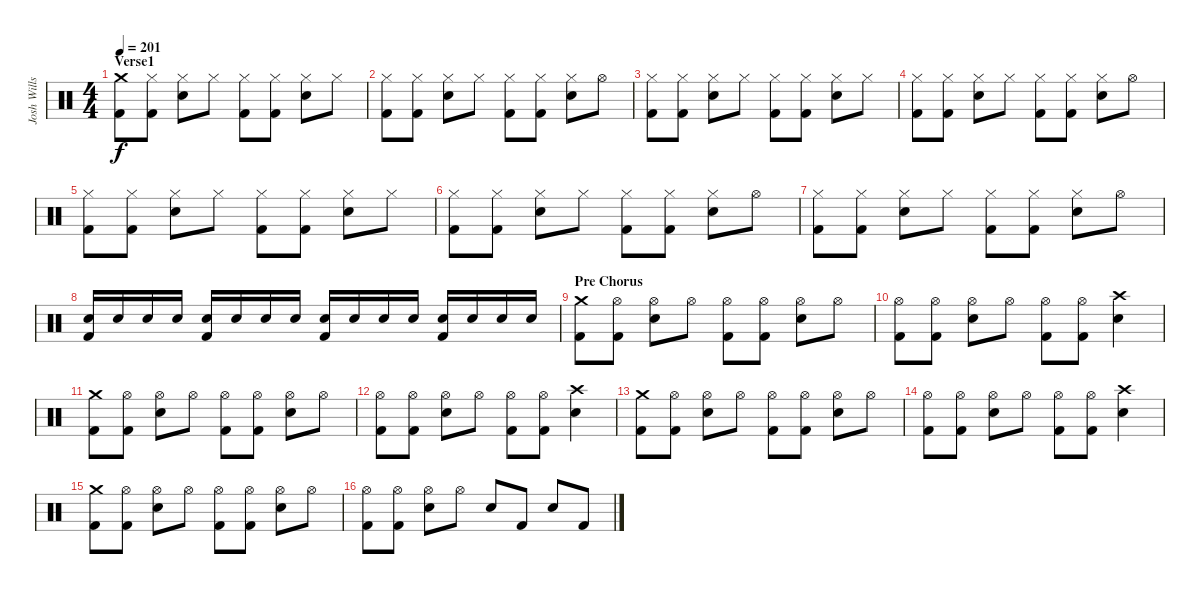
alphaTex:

\track ("Josh Wills" "Josh Wills") {instrument percussion}
\staff {score}
\articulation defaults
\ts (4 4)
\section ("" "Verse1")
\tempo 201
\clef neutral
\ks c
("Crash medium (hit)" "Kick (hit) 2").8{dy f} ("Hi-Hat (closed)" "Kick (hit) 2").8 ("Hi-Hat (closed)" "Snare (hit) 2").8 "Hi-Hat (closed)".8 ("Hi-Hat (closed)" "Kick (hit) 2").8 ("Hi-Hat (closed)" "Kick (hit) 2").8 ("Hi-Hat (closed)" "Snare (hit) 2").8 "Hi-Hat (closed)".8 |
("Hi-Hat (closed)" "Kick (hit) 2").8 ("Hi-Hat (closed)" "Kick (hit) 2").8 ("Hi-Hat (closed)" "Snare (hit) 2").8 "Hi-Hat (closed)".8 ("Hi-Hat (closed)" "Kick (hit) 2").8 ("Hi-Hat (closed)" "Kick (hit) 2").8 ("Hi-Hat (closed)" "Snare (hit) 2").8 "Hi-Hat (open)".8 |
("Hi-Hat (closed)" "Kick (hit) 2").8 ("Hi-Hat (closed)" "Kick (hit) 2").8 ("Hi-Hat (closed)" "Snare (hit) 2").8 "Hi-Hat (closed)".8 ("Hi-Hat (closed)" "Kick (hit) 2").8 ("Hi-Hat (closed)" "Kick (hit) 2").8 ("Hi-Hat (closed)" "Snare (hit) 2").8 "Hi-Hat (closed)".8 |
("Hi-Hat (closed)" "Kick (hit) 2").8 ("Hi-Hat (closed)" "Kick (hit) 2").8 ("Hi-Hat (closed)" "Snare (hit) 2").8 "Hi-Hat (closed)".8 ("Hi-Hat (closed)" "Kick (hit) 2").8 ("Hi-Hat (closed)" "Kick (hit) 2").8 ("Hi-Hat (closed)" "Snare (hit) 2").8 "Hi-Hat (open)".8 |
("Hi-Hat (closed)" "Kick (hit) 2").8 ("Hi-Hat (closed)" "Kick (hit) 2").8 ("Hi-Hat (closed)" "Snare (hit) 2").8 "Hi-Hat (closed)".8 ("Hi-Hat (closed)" "Kick (hit) 2").8 ("Hi-Hat (closed)" "Kick (hit) 2").8 ("Hi-Hat (closed)" "Snare (hit) 2").8 "Hi-Hat (closed)".8 |
("Hi-Hat (closed)" "Kick (hit) 2").8 ("Hi-Hat (closed)" "Kick (hit) 2").8 ("Hi-Hat (closed)" "Snare (hit) 2").8 "Hi-Hat (closed)".8 ("Hi-Hat (closed)" "Kick (hit) 2").8 ("Hi-Hat (closed)" "Kick (hit) 2").8 ("Hi-Hat (closed)" "Snare (hit) 2").8 "Hi-Hat (open)".8 |
("Hi-Hat (closed)" "Kick (hit) 2").8 ("Hi-Hat (closed)" "Kick (hit) 2").8 ("Hi-Hat (closed)" "Snare (hit) 2").8 "Hi-Hat (closed)".8 ("Hi-Hat (closed)" "Kick (hit) 2").8 ("Hi-Hat (closed)" "Kick (hit) 2").8 ("Hi-Hat (closed)" "Snare (hit) 2").8 "Hi-Hat (open)".8 |
("Snare (hit) 2" "Kick (hit) 2").16 "Snare (hit) 2".16 "Snare (hit) 2".16 "Snare (hit) 2".16 ("Snare (hit) 2" "Kick (hit) 2").16 "Snare (hit) 2".16 "Snare (hit) 2".16 "Snare (hit) 2".16 ("Snare (hit) 2" "Kick (hit) 2").16 "Snare (hit) 2".16 "Snare (hit) 2".16 "Snare (hit) 2".16 ("Snare (hit) 2" "Kick (hit) 2").16 "Snare (hit) 2".16 "Snare (hit) 2".16 "Snare (hit) 2".16 |
\section ("" "Pre Chorus")
("Crash medium (hit)" "Kick (hit) 2").8 ("Hi-Hat (open)" "Kick (hit) 2").8 ("Hi-Hat (open)" "Snare (hit) 2").8 "Hi-Hat (open)".8 ("Hi-Hat (open)" "Kick (hit) 2").8 ("Hi-Hat (open)" "Kick (hit) 2").8 ("Hi-Hat (open)" "Snare (hit) 2").8 "Hi-Hat (open)".8 |
("Hi-Hat (open)" "Kick (hit) 2").8 ("Hi-Hat (open)" "Kick (hit) 2").8 ("Hi-Hat (open)" "Snare (hit) 2").8 "Hi-Hat (open)".8 ("Hi-Hat (open)" "Kick (hit) 2").8 ("Hi-Hat (open)" "Kick (hit) 2").8 ("Crash high (hit)" "Snare (hit) 2").4 |
("Crash medium (hit)" "Kick (hit) 2").8 ("Hi-Hat (open)" "Kick (hit) 2").8 ("Hi-Hat (open)" "Snare (hit) 2").8 "Hi-Hat (open)".8 ("Hi-Hat (open)" "Kick (hit) 2").8 ("Hi-Hat (open)" "Kick (hit) 2").8 ("Hi-Hat (open)" "Snare (hit) 2").8 "Hi-Hat (open)".8 |
("Hi-Hat (open)" "Kick (hit) 2").8 ("Hi-Hat (open)" "Kick (hit) 2").8 ("Hi-Hat (open)" "Snare (hit) 2").8 "Hi-Hat (open)".8 ("Hi-Hat (open)" "Kick (hit) 2").8 ("Hi-Hat (open)" "Kick (hit) 2").8 ("Crash high (hit)" "Snare (hit) 2").4 |
("Crash medium (hit)" "Kick (hit) 2").8 ("Hi-Hat (open)" "Kick (hit) 2").8 ("Hi-Hat (open)" "Snare (hit) 2").8 "Hi-Hat (open)".8 ("Hi-Hat (open)" "Kick (hit) 2").8 ("Hi-Hat (open)" "Kick (hit) 2").8 ("Hi-Hat (open)" "Snare (hit) 2").8 "Hi-Hat (open)".8 |
("Hi-Hat (open)" "Kick (hit) 2").8 ("Hi-Hat (open)" "Kick (hit) 2").8 ("Hi-Hat (open)" "Snare (hit) 2").8 "Hi-Hat (open)".8 ("Hi-Hat (open)" "Kick (hit) 2").8 ("Hi-Hat (open)" "Kick (hit) 2").8 ("Crash high (hit)" "Snare (hit) 2").4 |
("Crash medium (hit)" "Kick (hit) 2").8 ("Hi-Hat (open)" "Kick (hit) 2").8 ("Hi-Hat (open)" "Snare (hit) 2").8 "Hi-Hat (open)".8 ("Hi-Hat (open)" "Kick (hit) 2").8 ("Hi-Hat (open)" "Kick (hit) 2").8 ("Hi-Hat (open)" "Snare (hit) 2").8 "Hi-Hat (open)".8 |
("Hi-Hat (open)" "Kick (hit) 2").8 ("Hi-Hat (open)" "Kick (hit) 2").8 ("Hi-Hat (open)" "Snare (hit) 2").8 "Hi-Hat (open)".8 "Snare (hit) 2".8 "Kick (hit) 2".8 "Snare (hit) 2".8 "Kick (hit) 2".8
